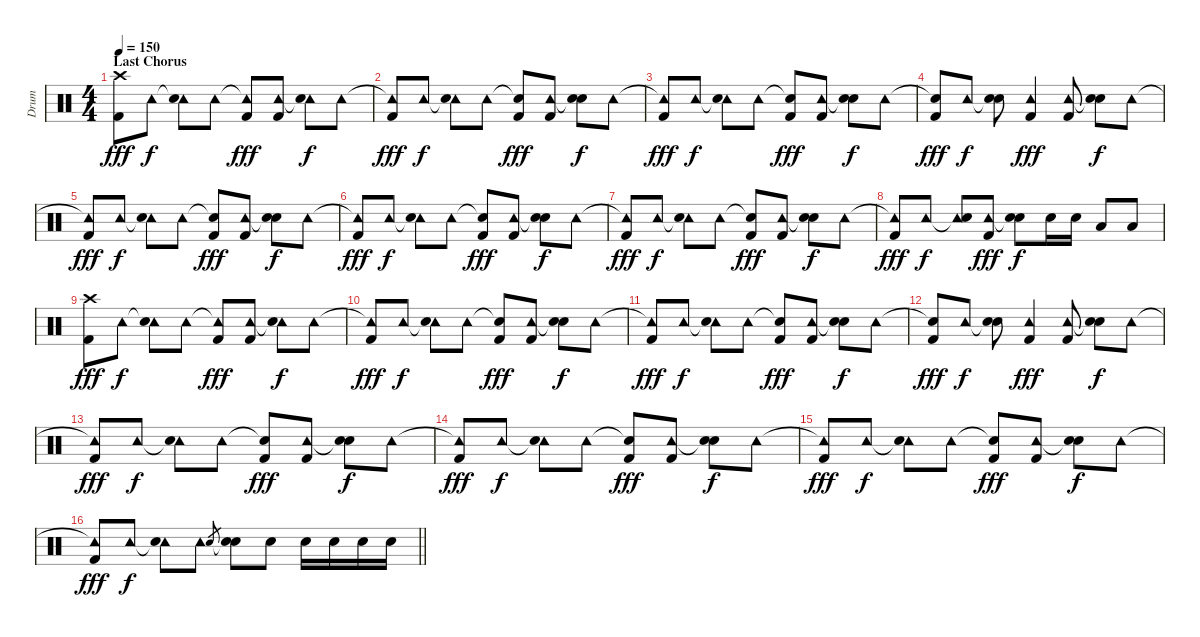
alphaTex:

\track ("Drum" "Drum") {instrument percussion}
\staff {score}
\articulation defaults
\ts (4 4)
\section ("" "Last Chorus")
\tempo 150
\clef neutral
\ks c
("Crash high (hit)" "Kick (hit) 2").8{dy fff} "Tambourine (hit)".8{dy f} ("Tambourine (hit)"{t} "Snare (hit) 2").8 "Tambourine (hit)".8 ("Tambourine (hit)"{t} "Kick (hit) 2").8{dy fff} ("Tambourine (hit)" "Kick (hit) 2").8 ("Tambourine (hit)"{t} "Snare (hit) 2").8{dy f} "Tambourine (hit)".8 |
("Tambourine (hit)"{t} "Kick (hit) 2").8{dy fff} "Tambourine (hit)".8{dy f} ("Tambourine (hit)"{t} "Snare (hit) 2").8 "Tambourine (hit)".8 ("Snare (hit)"{t} "Kick (hit) 2").8{dy fff} ("Tambourine (hit)" "Kick (hit) 2").8 ("Snare (hit)"{t} "Snare (hit) 2").8{dy f} "Tambourine (hit)".8 |
("Tambourine (hit)"{t} "Kick (hit) 2").8{dy fff} "Tambourine (hit)".8{dy f} ("Tambourine (hit)"{t} "Snare (hit) 2").8 "Tambourine (hit)".8 ("Snare (hit)"{t} "Kick (hit) 2").8{dy fff} ("Tambourine (hit)" "Kick (hit) 2").8 ("Snare (hit)"{t} "Snare (hit) 2").8{dy f} "Tambourine (hit)".8 |
("Snare (hit)"{t} "Kick (hit) 2").8{dy fff} "Tambourine (hit)".8{dy f} ("Snare (hit)"{t} "Snare (hit) 2").8 ("Tambourine (hit)" "Kick (hit) 2").4{dy fff} ("Tambourine (hit)" "Kick (hit) 2").8 ("Snare (hit)"{t} "Snare (hit) 2").8{dy f} "Tambourine (hit)".8 |
("Tambourine (hit)"{t} "Kick (hit) 2").8{dy fff} "Tambourine (hit)".8{dy f} ("Tambourine (hit)"{t} "Snare (hit) 2").8 "Tambourine (hit)".8 ("Snare (hit)"{t} "Kick (hit) 2").8{dy fff} ("Tambourine (hit)" "Kick (hit) 2").8 ("Snare (hit)"{t} "Snare (hit) 2").8{dy f} "Tambourine (hit)".8 |
("Tambourine (hit)"{t} "Kick (hit) 2").8{dy fff} "Tambourine (hit)".8{dy f} ("Tambourine (hit)"{t} "Snare (hit) 2").8 "Tambourine (hit)".8 ("Snare (hit)"{t} "Kick (hit) 2").8{dy fff} ("Tambourine (hit)" "Kick (hit) 2").8 ("Snare (hit)"{t} "Snare (hit) 2").8{dy f} "Tambourine (hit)".8 |
("Tambourine (hit)"{t} "Kick (hit) 2").8{dy fff} "Tambourine (hit)".8{dy f} ("Tambourine (hit)"{t} "Snare (hit) 2").8 "Tambourine (hit)".8 ("Snare (hit)"{t} "Kick (hit) 2").8{dy fff} ("Tambourine (hit)" "Kick (hit) 2").8 ("Snare (hit)"{t} "Snare (hit) 2").8{dy f} "Tambourine (hit)".8 |
("Tambourine (hit)"{t} "Kick (hit) 2").8{dy fff} "Tambourine (hit)".8{dy f} ("Tambourine (hit)"{t} "Snare (hit) 2").8 ("Tambourine (hit)" "Kick (hit) 2").8{dy fff} ("Snare (hit)"{t} "Snare (hit) 2").8{dy f} "Snare (hit) 2".16 "Snare (hit) 2".16 "Low Tom (hit)".8 "Low Tom (hit)".8 |
("Crash high (hit)" "Kick (hit) 2").8{dy fff} "Tambourine (hit)".8{dy f} ("Tambourine (hit)"{t} "Snare (hit) 2").8 "Tambourine (hit)".8 ("Tambourine (hit)"{t} "Kick (hit) 2").8{dy fff} ("Tambourine (hit)" "Kick (hit) 2").8 ("Tambourine (hit)"{t} "Snare (hit) 2").8{dy f} "Tambourine (hit)".8 |
("Tambourine (hit)"{t} "Kick (hit) 2").8{dy fff} "Tambourine (hit)".8{dy f} ("Tambourine (hit)"{t} "Snare (hit) 2").8 "Tambourine (hit)".8 ("Snare (hit)"{t} "Kick (hit) 2").8{dy fff} ("Tambourine (hit)" "Kick (hit) 2").8 ("Snare (hit)"{t} "Snare (hit) 2").8{dy f} "Tambourine (hit)".8 |
("Tambourine (hit)"{t} "Kick (hit) 2").8{dy fff} "Tambourine (hit)".8{dy f} ("Tambourine (hit)"{t} "Snare (hit) 2").8 "Tambourine (hit)".8 ("Snare (hit)"{t} "Kick (hit) 2").8{dy fff} ("Tambourine (hit)" "Kick (hit) 2").8 ("Snare (hit)"{t} "Snare (hit) 2").8{dy f} "Tambourine (hit)".8 |
("Snare (hit)"{t} "Kick (hit) 2").8{dy fff} "Tambourine (hit)".8{dy f} ("Snare (hit)"{t} "Snare (hit) 2").8 ("Tambourine (hit)" "Kick (hit) 2").4{dy fff} ("Tambourine (hit)" "Kick (hit) 2").8 ("Snare (hit)"{t} "Snare (hit) 2").8{dy f} "Tambourine (hit)".8 |
("Tambourine (hit)"{t} "Kick (hit) 2").8{dy fff} "Tambourine (hit)".8{dy f} ("Tambourine (hit)"{t} "Snare (hit) 2").8 "Tambourine (hit)".8 ("Snare (hit)"{t} "Kick (hit) 2").8{dy fff} ("Tambourine (hit)" "Kick (hit) 2").8 ("Snare (hit)"{t} "Snare (hit) 2").8{dy f} "Tambourine (hit)".8 |
("Tambourine (hit)"{t} "Kick (hit) 2").8{dy fff} "Tambourine (hit)".8{dy f} ("Tambourine (hit)"{t} "Snare (hit) 2").8 "Tambourine (hit)".8 ("Snare (hit)"{t} "Kick (hit) 2").8{dy fff} ("Tambourine (hit)" "Kick (hit) 2").8 ("Snare (hit)"{t} "Snare (hit) 2").8{dy f} "Tambourine (hit)".8 |
("Tambourine (hit)"{t} "Kick (hit) 2").8{dy fff} "Tambourine (hit)".8{dy f} ("Tambourine (hit)"{t} "Snare (hit) 2").8 "Tambourine (hit)".8 ("Snare (hit)"{t} "Kick (hit) 2").8{dy fff} ("Tambourine (hit)" "Kick (hit) 2").8 ("Snare (hit)"{t} "Snare (hit) 2").8{dy f} "Tambourine (hit)".8 |
\barLineRight lightlight
("Tambourine (hit)"{t} "Kick (hit) 2").8{dy fff} "Tambourine (hit)".8{dy f} ("Tambourine (hit)"{t} "Snare (hit) 2").8 "Tambourine (hit)".8 "Snare (hit) 2".8{gr} ("Snare (hit)"{t} "Snare (hit) 2").8 "Snare (hit) 2".8 "Snare (hit) 2".16 "Snare (hit) 2".16 "Snare (hit) 2".16 "Snare (hit) 2".16
